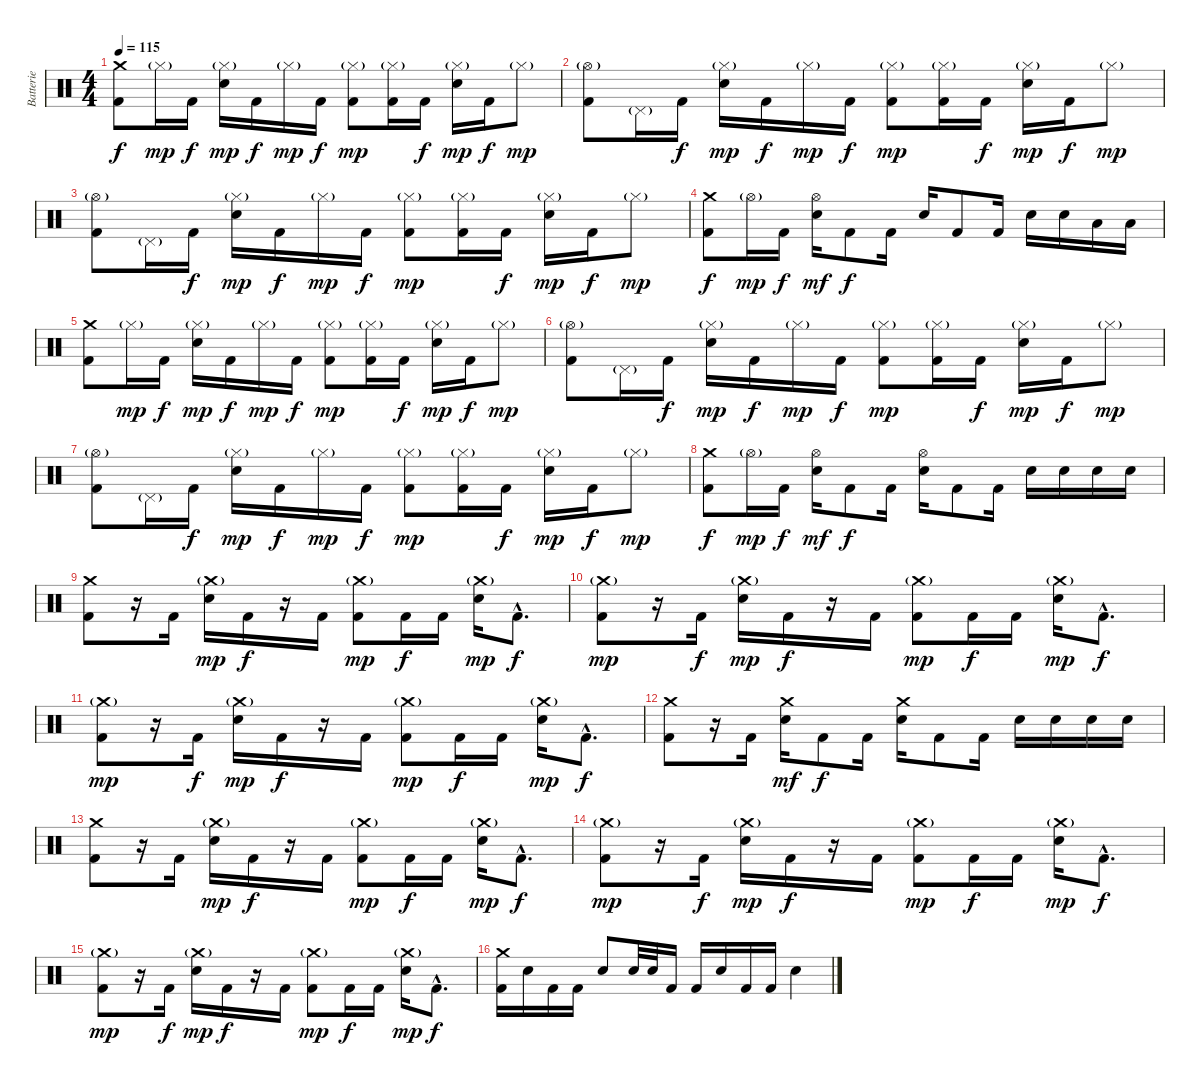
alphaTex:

\track ("Batterie" "Batterie") {instrument percussion}
\staff {score}
\articulation defaults
\ts (4 4)
\tempo 115
\clef neutral
\ks c
("Crash medium (hit)" "Kick (hit) 2").8{dy f} "Hi-Hat (closed)"{g}.16{dy mp} "Kick (hit) 2".16{dy f} ("Hi-Hat (closed)"{g} "Electric Snare (hit)").16{dy mp} "Kick (hit) 2".16{dy f} "Hi-Hat (closed)"{g}.16{dy mp} "Kick (hit) 2".16{dy f} ("Hi-Hat (closed)"{g} "Kick (hit) 2").8{dy mp} ("Hi-Hat (closed)"{g} "Kick (hit) 2").16 "Kick (hit) 2".16{dy f} ("Hi-Hat (closed)"{g} "Electric Snare (hit)").16{dy mp} "Kick (hit) 2".16{dy f} "Hi-Hat (closed)"{g}.8{dy mp} |
("Hi-Hat (open)"{g} "Kick (hit) 2").8 "Pedal Hi-Hat (hit)"{g}.16 "Kick (hit) 2".16{dy f} ("Hi-Hat (closed)"{g} "Electric Snare (hit)").16{dy mp} "Kick (hit) 2".16{dy f} "Hi-Hat (closed)"{g}.16{dy mp} "Kick (hit) 2".16{dy f} ("Hi-Hat (closed)"{g} "Kick (hit) 2").8{dy mp} ("Hi-Hat (closed)"{g} "Kick (hit) 2").16 "Kick (hit) 2".16{dy f} ("Hi-Hat (closed)"{g} "Electric Snare (hit)").16{dy mp} "Kick (hit) 2".16{dy f} "Hi-Hat (closed)"{g}.8{dy mp} |
("Hi-Hat (open)"{g} "Kick (hit) 2").8 "Pedal Hi-Hat (hit)"{g}.16 "Kick (hit) 2".16{dy f} ("Hi-Hat (closed)"{g} "Electric Snare (hit)").16{dy mp} "Kick (hit) 2".16{dy f} "Hi-Hat (closed)"{g}.16{dy mp} "Kick (hit) 2".16{dy f} ("Hi-Hat (closed)"{g} "Kick (hit) 2").8{dy mp} ("Hi-Hat (closed)"{g} "Kick (hit) 2").16 "Kick (hit) 2".16{dy f} ("Hi-Hat (closed)"{g} "Electric Snare (hit)").16{dy mp} "Kick (hit) 2".16{dy f} "Hi-Hat (closed)"{g}.8{dy mp} |
("Crash medium (hit)" "Kick (hit) 2").8{dy f} "Hi-Hat (open)"{g}.16{dy mp} "Kick (hit) 2".16{dy f} ("Hi-Hat (open)" "Electric Snare (hit)").16{dy mf} "Kick (hit) 2".8{dy f} "Kick (hit) 2".16 "Electric Snare (hit)".16 "Kick (hit) 2".8 "Kick (hit) 2".16 "Electric Snare (hit)".16 "Electric Snare (hit)".16 "Low Tom (hit)".16 "Low Tom (hit)".16 |
("Crash medium (hit)" "Kick (hit) 2").8 "Hi-Hat (closed)"{g}.16{dy mp} "Kick (hit) 2".16{dy f} ("Hi-Hat (closed)"{g} "Electric Snare (hit)").16{dy mp} "Kick (hit) 2".16{dy f} "Hi-Hat (closed)"{g}.16{dy mp} "Kick (hit) 2".16{dy f} ("Hi-Hat (closed)"{g} "Kick (hit) 2").8{dy mp} ("Hi-Hat (closed)"{g} "Kick (hit) 2").16 "Kick (hit) 2".16{dy f} ("Hi-Hat (closed)"{g} "Electric Snare (hit)").16{dy mp} "Kick (hit) 2".16{dy f} "Hi-Hat (closed)"{g}.8{dy mp} |
("Hi-Hat (open)"{g} "Kick (hit) 2").8 "Pedal Hi-Hat (hit)"{g}.16 "Kick (hit) 2".16{dy f} ("Hi-Hat (closed)"{g} "Electric Snare (hit)").16{dy mp} "Kick (hit) 2".16{dy f} "Hi-Hat (closed)"{g}.16{dy mp} "Kick (hit) 2".16{dy f} ("Hi-Hat (closed)"{g} "Kick (hit) 2").8{dy mp} ("Hi-Hat (closed)"{g} "Kick (hit) 2").16 "Kick (hit) 2".16{dy f} ("Hi-Hat (closed)"{g} "Electric Snare (hit)").16{dy mp} "Kick (hit) 2".16{dy f} "Hi-Hat (closed)"{g}.8{dy mp} |
("Hi-Hat (open)"{g} "Kick (hit) 2").8 "Pedal Hi-Hat (hit)"{g}.16 "Kick (hit) 2".16{dy f} ("Hi-Hat (closed)"{g} "Electric Snare (hit)").16{dy mp} "Kick (hit) 2".16{dy f} "Hi-Hat (closed)"{g}.16{dy mp} "Kick (hit) 2".16{dy f} ("Hi-Hat (closed)"{g} "Kick (hit) 2").8{dy mp} ("Hi-Hat (closed)"{g} "Kick (hit) 2").16 "Kick (hit) 2".16{dy f} ("Hi-Hat (closed)"{g} "Electric Snare (hit)").16{dy mp} "Kick (hit) 2".16{dy f} "Hi-Hat (closed)"{g}.8{dy mp} |
("Crash medium (hit)" "Kick (hit) 2").8{dy f} "Hi-Hat (open)"{g}.16{dy mp} "Kick (hit) 2".16{dy f} ("Hi-Hat (open)" "Electric Snare (hit)").16{dy mf} "Kick (hit) 2".8{dy f} "Kick (hit) 2".16 ("Hi-Hat (open)" "Electric Snare (hit)").16 "Kick (hit) 2".8 "Kick (hit) 2".16 "Electric Snare (hit)".16 "Electric Snare (hit)".16 "Electric Snare (hit)".16 "Electric Snare (hit)".16 |
("Crash medium (hit)" "Kick (hit) 2").8 r.16 "Kick (hit) 2".16 ("Crash medium (hit)"{g} "Electric Snare (hit)").16{dy mp} "Kick (hit) 2".16{dy f} r.16 "Kick (hit) 2".16 ("Crash medium (hit)"{g} "Kick (hit) 2").8{dy mp} "Kick (hit) 2".16{dy f} "Kick (hit) 2".16 ("Crash medium (hit)"{g} "Electric Snare (hit)").16{dy mp} "Kick (hit) 2"{hac}.8{d dy f} |
("Crash medium (hit)"{g} "Kick (hit) 2").8{dy mp} r.16 "Kick (hit) 2".16{dy f} ("Crash medium (hit)"{g} "Electric Snare (hit)").16{dy mp} "Kick (hit) 2".16{dy f} r.16 "Kick (hit) 2".16 ("Crash medium (hit)"{g} "Kick (hit) 2").8{dy mp} "Kick (hit) 2".16{dy f} "Kick (hit) 2".16 ("Crash medium (hit)"{g} "Electric Snare (hit)").16{dy mp} "Kick (hit) 2"{hac}.8{d dy f} |
("Crash medium (hit)"{g} "Kick (hit) 2").8{dy mp} r.16 "Kick (hit) 2".16{dy f} ("Crash medium (hit)"{g} "Electric Snare (hit)").16{dy mp} "Kick (hit) 2".16{dy f} r.16 "Kick (hit) 2".16 ("Crash medium (hit)"{g} "Kick (hit) 2").8{dy mp} "Kick (hit) 2".16{dy f} "Kick (hit) 2".16 ("Crash medium (hit)"{g} "Electric Snare (hit)").16{dy mp} "Kick (hit) 2"{hac}.8{d dy f} |
("Crash medium (hit)" "Kick (hit) 2").8 r.16 "Kick (hit) 2".16 ("Crash medium (hit)" "Electric Snare (hit)").16{dy mf} "Kick (hit) 2".8{dy f} "Kick (hit) 2".16 ("Crash medium (hit)" "Electric Snare (hit)").16 "Kick (hit) 2".8 "Kick (hit) 2".16 "Electric Snare (hit)".16 "Electric Snare (hit)".16 "Electric Snare (hit)".16 "Electric Snare (hit)".16 |
("Crash medium (hit)" "Kick (hit) 2").8 r.16 "Kick (hit) 2".16 ("Crash medium (hit)"{g} "Electric Snare (hit)").16{dy mp} "Kick (hit) 2".16{dy f} r.16 "Kick (hit) 2".16 ("Crash medium (hit)"{g} "Kick (hit) 2").8{dy mp} "Kick (hit) 2".16{dy f} "Kick (hit) 2".16 ("Crash medium (hit)"{g} "Electric Snare (hit)").16{dy mp} "Kick (hit) 2"{hac}.8{d dy f} |
("Crash medium (hit)"{g} "Kick (hit) 2").8{dy mp} r.16 "Kick (hit) 2".16{dy f} ("Crash medium (hit)"{g} "Electric Snare (hit)").16{dy mp} "Kick (hit) 2".16{dy f} r.16 "Kick (hit) 2".16 ("Crash medium (hit)"{g} "Kick (hit) 2").8{dy mp} "Kick (hit) 2".16{dy f} "Kick (hit) 2".16 ("Crash medium (hit)"{g} "Electric Snare (hit)").16{dy mp} "Kick (hit) 2"{hac}.8{d dy f} |
("Crash medium (hit)"{g} "Kick (hit) 2").8{dy mp} r.16 "Kick (hit) 2".16{dy f} ("Crash medium (hit)"{g} "Electric Snare (hit)").16{dy mp} "Kick (hit) 2".16{dy f} r.16 "Kick (hit) 2".16 ("Crash medium (hit)"{g} "Kick (hit) 2").8{dy mp} "Kick (hit) 2".16{dy f} "Kick (hit) 2".16 ("Crash medium (hit)"{g} "Electric Snare (hit)").16{dy mp} "Kick (hit) 2"{hac}.8{d dy f} |
("Crash medium (hit)" "Kick (hit) 2").16 "Electric Snare (hit)".16 "Kick (hit) 2".16 "Kick (hit) 2".16 "Electric Snare (hit)".8 "Electric Snare (hit)".32 "Electric Snare (hit)".32 "Kick (hit) 2".16 "Kick (hit) 2".16 "Electric Snare (hit)".16 "Kick (hit) 2".16 "Kick (hit) 2".16 "Electric Snare (hit)".4
